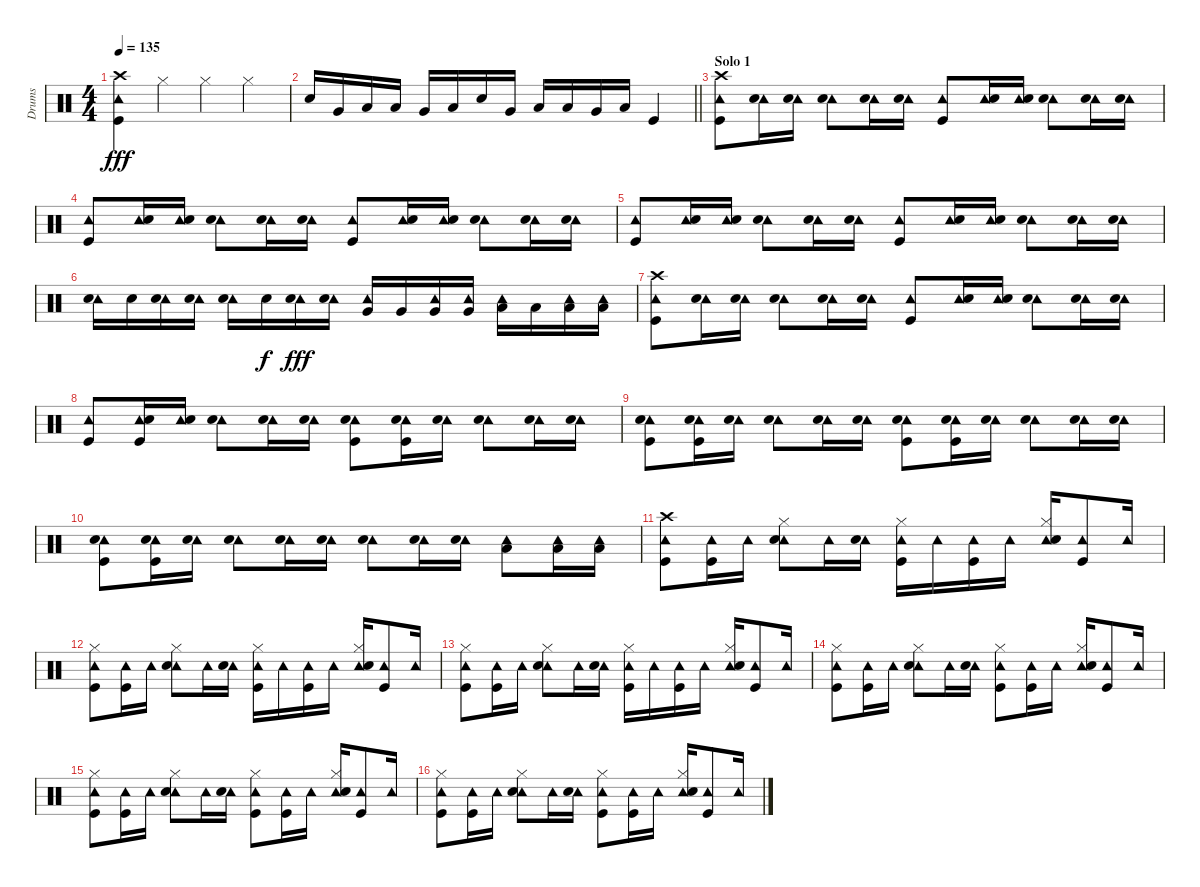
\track ("Drums" "Drums") {instrument percussion}
\staff {score}
\articulation defaults
\ts (4 4)
\tempo 135
\clef neutral
\ks c
("Crash high (hit)" "Tambourine (hit)" "Kick (hit)").4{dy fff} "Hi-Hat (closed)".4 "Hi-Hat (closed)".4 "Hi-Hat (closed)".4 |
\barLineRight lightlight "Snare (hit) 2".16 "Very Low Tom (hit)".16 "Low Floor Tom (hit)".16 "Low Floor Tom (hit)".16 "Very Low Tom (hit)".16 "Low Floor Tom (hit)".16 "Snare (hit) 2".16 "Very Low Tom (hit)".16 "Low Floor Tom (hit)".16 "Low Floor Tom (hit)".16 "Very Low Tom (hit)".16 "Low Floor Tom (hit)".16 "Kick (hit)".4
|
\section ("" "Solo 1")
("Crash high (hit)" "Tambourine (hit)" "Kick (hit)").8 ("Tambourine (hit)" "Snare (hit) 2").16 ("Tambourine (hit)" "Snare (hit) 2").16 ("Tambourine (hit)" "Snare (hit) 2").8 ("Tambourine (hit)" "Snare (hit) 2").16 ("Tambourine (hit)" "Snare (hit) 2").16 ("Tambourine (hit)" "Kick (hit)").8 ("Tambourine (hit)" "Snare (hit) 2").16 ("Tambourine (hit)" "Snare (hit) 2").16 ("Tambourine (hit)" "Snare (hit) 2").8 ("Tambourine (hit)" "Snare (hit) 2").16 ("Tambourine (hit)" "Snare (hit) 2").16 |
("Tambourine (hit)" "Kick (hit)").8 ("Tambourine (hit)" "Snare (hit) 2").16 ("Tambourine (hit)" "Snare (hit) 2").16 ("Tambourine (hit)" "Snare (hit) 2").8 ("Tambourine (hit)" "Snare (hit) 2").16 ("Tambourine (hit)" "Snare (hit) 2").16 ("Tambourine (hit)" "Kick (hit)").8 ("Tambourine (hit)" "Snare (hit) 2").16 ("Tambourine (hit)" "Snare (hit) 2").16 ("Tambourine (hit)" "Snare (hit) 2").8 ("Tambourine (hit)" "Snare (hit) 2").16 ("Tambourine (hit)" "Snare (hit) 2").16 |
("Tambourine (hit)" "Kick (hit)").8 ("Tambourine (hit)" "Snare (hit) 2").16 ("Tambourine (hit)" "Snare (hit) 2").16 ("Tambourine (hit)" "Snare (hit) 2").8 ("Tambourine (hit)" "Snare (hit) 2").16 ("Tambourine (hit)" "Snare (hit) 2").16 ("Tambourine (hit)" "Kick (hit)").8 ("Tambourine (hit)" "Snare (hit) 2").16 ("Tambourine (hit)" "Snare (hit) 2").16 ("Tambourine (hit)" "Snare (hit) 2").8 ("Tambourine (hit)" "Snare (hit) 2").16 ("Tambourine (hit)" "Snare (hit) 2").16 |
("Tambourine (hit)" "Snare (hit) 2").16 "Snare (hit) 2".16 ("Tambourine (hit)" "Snare (hit) 2").16 ("Tambourine (hit)" "Snare (hit) 2").16 ("Tambourine (hit)" "Snare (hit) 2").16 "Snare (hit) 2".16{dy f} ("Tambourine (hit)" "Snare (hit) 2").16{dy fff} ("Tambourine (hit)" "Snare (hit) 2").16 ("Tambourine (hit)" "Very Low Tom (hit)").16 "Very Low Tom (hit)".16 ("Tambourine (hit)" "Very Low Tom (hit)").16 ("Tambourine (hit)" "Very Low Tom (hit)").16 ("Tambourine (hit)" "Low Floor Tom (hit)").16 "Low Floor Tom (hit)".16 ("Tambourine (hit)" "Low Floor Tom (hit)").16 ("Tambourine (hit)" "Low Floor Tom (hit)").16 |
("Crash high (hit)" "Tambourine (hit)" "Kick (hit)").8 ("Tambourine (hit)" "Snare (hit) 2").16 ("Tambourine (hit)" "Snare (hit) 2").16 ("Tambourine (hit)" "Snare (hit) 2").8 ("Tambourine (hit)" "Snare (hit) 2").16 ("Tambourine (hit)" "Snare (hit) 2").16 ("Tambourine (hit)" "Kick (hit)").8 ("Tambourine (hit)" "Snare (hit) 2").16 ("Tambourine (hit)" "Snare (hit) 2").16 ("Tambourine (hit)" "Snare (hit) 2").8 ("Tambourine (hit)" "Snare (hit) 2").16 ("Tambourine (hit)" "Snare (hit) 2").16 |
("Tambourine (hit)" "Kick (hit)").8 ("Tambourine (hit)" "Snare (hit) 2" "Kick (hit)").16 ("Tambourine (hit)" "Snare (hit) 2").16 ("Tambourine (hit)" "Snare (hit) 2").8 ("Tambourine (hit)" "Snare (hit) 2").16 ("Tambourine (hit)" "Snare (hit) 2").16 ("Tambourine (hit)" "Snare (hit) 2" "Kick (hit)").8 ("Tambourine (hit)" "Snare (hit) 2" "Kick (hit)").16 ("Tambourine (hit)" "Snare (hit) 2").16 ("Tambourine (hit)" "Snare (hit) 2").8 ("Tambourine (hit)" "Snare (hit) 2").16 ("Tambourine (hit)" "Snare (hit) 2").16 |
("Tambourine (hit)" "Snare (hit) 2" "Kick (hit)").8 ("Tambourine (hit)" "Snare (hit) 2" "Kick (hit)").16 ("Tambourine (hit)" "Snare (hit) 2").16 ("Tambourine (hit)" "Snare (hit) 2").8 ("Tambourine (hit)" "Snare (hit) 2").16 ("Tambourine (hit)" "Snare (hit) 2").16 ("Tambourine (hit)" "Snare (hit) 2" "Kick (hit)").8 ("Tambourine (hit)" "Snare (hit) 2" "Kick (hit)").16 ("Tambourine (hit)" "Snare (hit) 2").16 ("Tambourine (hit)" "Snare (hit) 2").8 ("Tambourine (hit)" "Snare (hit) 2").16 ("Tambourine (hit)" "Snare (hit) 2").16 |
("Tambourine (hit)" "Snare (hit) 2" "Kick (hit)").8 ("Tambourine (hit)" "Snare (hit) 2" "Kick (hit)").16 ("Tambourine (hit)" "Snare (hit) 2").16 ("Tambourine (hit)" "Snare (hit) 2").8 ("Tambourine (hit)" "Snare (hit) 2").16 ("Tambourine (hit)" "Snare (hit) 2").16 ("Tambourine (hit)" "Snare (hit) 2").8 ("Tambourine (hit)" "Snare (hit) 2").16 ("Tambourine (hit)" "Snare (hit) 2").16 ("Tambourine (hit)" "Low Tom (hit)").8 ("Tambourine (hit)" "Low Tom (hit)").16 ("Tambourine (hit)" "Low Tom (hit)").16 |
("Crash high (hit)" "Tambourine (hit)" "Kick (hit)").8 ("Tambourine (hit)" "Kick (hit)").16 "Tambourine (hit)".16 ("Hi-Hat (closed)" "Tambourine (hit)" "Snare (hit) 2").8 "Tambourine (hit)".16 ("Tambourine (hit)" "Snare (hit) 2").16 ("Hi-Hat (closed)" "Tambourine (hit)" "Kick (hit)").16 "Tambourine (hit)".16 ("Tambourine (hit)" "Kick (hit)").16 "Tambourine (hit)".16 ("Hi-Hat (closed)" "Tambourine (hit)" "Snare (hit) 2").16 ("Tambourine (hit)" "Kick (hit)").8 "Tambourine (hit)".16 |
("Hi-Hat (closed)" "Tambourine (hit)" "Kick (hit)").8 ("Tambourine (hit)" "Kick (hit)").16 "Tambourine (hit)".16 ("Hi-Hat (closed)" "Tambourine (hit)" "Snare (hit) 2").8 "Tambourine (hit)".16 ("Tambourine (hit)" "Snare (hit) 2").16 ("Hi-Hat (closed)" "Tambourine (hit)" "Kick (hit)").16 "Tambourine (hit)".16 ("Tambourine (hit)" "Kick (hit)").16 "Tambourine (hit)".16 ("Hi-Hat (closed)" "Tambourine (hit)" "Snare (hit) 2").16 ("Tambourine (hit)" "Kick (hit)").8 "Tambourine (hit)".16 |
("Hi-Hat (closed)" "Tambourine (hit)" "Kick (hit)").8 ("Tambourine (hit)" "Kick (hit)").16 "Tambourine (hit)".16 ("Hi-Hat (closed)" "Tambourine (hit)" "Snare (hit) 2").8 "Tambourine (hit)".16 ("Tambourine (hit)" "Snare (hit) 2").16 ("Hi-Hat (closed)" "Tambourine (hit)" "Kick (hit)").16 "Tambourine (hit)".16 ("Tambourine (hit)" "Kick (hit)").16 "Tambourine (hit)".16 ("Hi-Hat (closed)" "Tambourine (hit)" "Snare (hit) 2").16 ("Tambourine (hit)" "Kick (hit)").8 "Tambourine (hit)".16 |
("Hi-Hat (closed)" "Tambourine (hit)" "Kick (hit)").8 ("Tambourine (hit)" "Kick (hit)").16 "Tambourine (hit)".16 ("Hi-Hat (closed)" "Tambourine (hit)" "Snare (hit) 2").8 "Tambourine (hit)".16 ("Tambourine (hit)" "Snare (hit) 2").16 ("Hi-Hat (closed)" "Tambourine (hit)" "Kick (hit)").8 ("Tambourine (hit)" "Kick (hit)").16 "Tambourine (hit)".16 ("Hi-Hat (closed)" "Tambourine (hit)" "Snare (hit) 2").16 ("Tambourine (hit)" "Kick (hit)").8 "Tambourine (hit)".16 |
("Hi-Hat (closed)" "Tambourine (hit)" "Kick (hit)").8 ("Tambourine (hit)" "Kick (hit)").16 "Tambourine (hit)".16 ("Hi-Hat (closed)" "Tambourine (hit)" "Snare (hit) 2").8 "Tambourine (hit)".16 ("Tambourine (hit)" "Snare (hit) 2").16 ("Hi-Hat (closed)" "Tambourine (hit)" "Kick (hit)").8 ("Tambourine (hit)" "Kick (hit)").16 "Tambourine (hit)".16 ("Hi-Hat (closed)" "Tambourine (hit)" "Snare (hit) 2").16 ("Tambourine (hit)" "Kick (hit)").8 "Tambourine (hit)".16 |
("Hi-Hat (closed)" "Tambourine (hit)" "Kick (hit)").8 ("Tambourine (hit)" "Kick (hit)").16 "Tambourine (hit)".16 ("Hi-Hat (closed)" "Tambourine (hit)" "Snare (hit) 2").8 "Tambourine (hit)".16 ("Tambourine (hit)" "Snare (hit) 2").16 ("Hi-Hat (closed)" "Tambourine (hit)" "Kick (hit)").8 ("Tambourine (hit)" "Kick (hit)").16 "Tambourine (hit)".16 ("Hi-Hat (closed)" "Tambourine (hit)" "Snare (hit) 2").16 ("Tambourine (hit)" "Kick (hit)").8 "Tambourine (hit)".16
